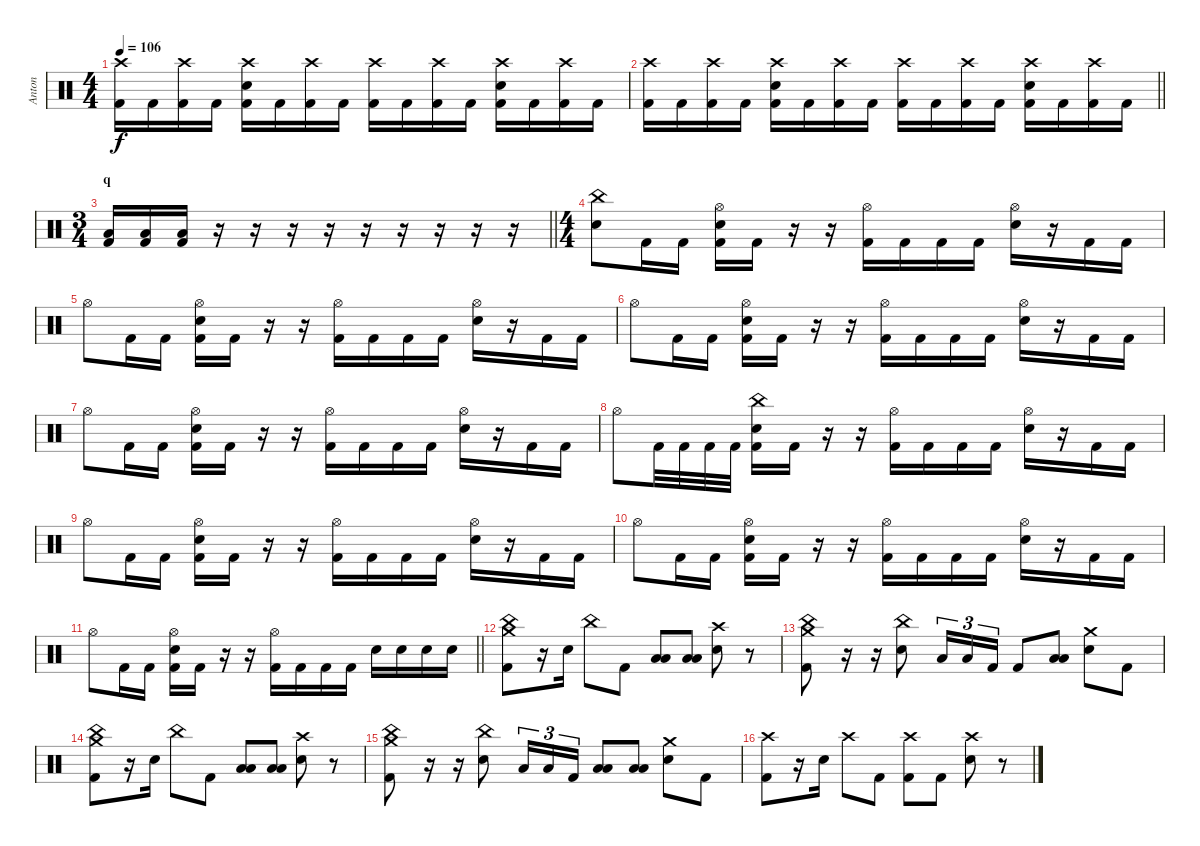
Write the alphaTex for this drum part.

\track ("Anton" "Anton") {instrument percussion}
\staff
\articulation defaults
\ts (4 4)
\tempo 106
\clef neutral
\ks c
("Crash high (hit)" "Kick (hit) 2").16{dy f} "Kick (hit) 2".16 ("Crash high (hit)" "Kick (hit) 2").16 "Kick (hit) 2".16 ("Crash high (hit)" "Electric Snare (hit)" "Kick (hit) 2").16 "Kick (hit) 2".16 ("Crash high (hit)" "Kick (hit) 2").16 "Kick (hit) 2".16 ("Crash high (hit)" "Kick (hit) 2").16 "Kick (hit) 2".16 ("Crash high (hit)" "Kick (hit) 2").16 "Kick (hit) 2".16 ("Crash high (hit)" "Electric Snare (hit)" "Kick (hit) 2").16 "Kick (hit) 2".16 ("Crash high (hit)" "Kick (hit) 2").16 "Kick (hit) 2".16 |
\barLineRight lightlight
("Crash high (hit)" "Kick (hit) 2").16 "Kick (hit) 2".16 ("Crash high (hit)" "Kick (hit) 2").16 "Kick (hit) 2".16 ("Crash high (hit)" "Electric Snare (hit)" "Kick (hit) 2").16 "Kick (hit) 2".16 ("Crash high (hit)" "Kick (hit) 2").16 "Kick (hit) 2".16 ("Crash high (hit)" "Kick (hit) 2").16 "Kick (hit) 2".16 ("Crash high (hit)" "Kick (hit) 2").16 "Kick (hit) 2".16 ("Crash high (hit)" "Electric Snare (hit)" "Kick (hit) 2").16 "Kick (hit) 2".16 ("Crash high (hit)" "Kick (hit) 2").16 "Kick (hit) 2".16 |
\ts (3 4)
\section ("" "q")
\barLineRight lightlight
("Low Floor Tom (hit)" "Kick (hit) 2").16 ("Low Floor Tom (hit)" "Kick (hit) 2").16 ("Low Floor Tom (hit)" "Kick (hit) 2").16 r.16 r.16 r.16 r.16 r.16 r.16 r.16 r.16 r.16 |
\ts (4 4)
("China (hit)" "Electric Snare (hit)").8 "Kick (hit) 2".16 "Kick (hit) 2".16 ("Hi-Hat (open)" "Electric Snare (hit)" "Kick (hit) 2").16 "Kick (hit) 2".16 r.16 r.16 ("Hi-Hat (open)" "Kick (hit) 2").16 "Kick (hit) 2".16 "Kick (hit) 2".16 "Kick (hit) 2".16 ("Hi-Hat (open)" "Electric Snare (hit)").16 r.16 "Kick (hit) 2".16 "Kick (hit) 2".16 |
"Hi-Hat (open)".8 "Kick (hit) 2".16 "Kick (hit) 2".16 ("Hi-Hat (open)" "Electric Snare (hit)" "Kick (hit) 2").16 "Kick (hit) 2".16 r.16 r.16 ("Hi-Hat (open)" "Kick (hit) 2").16 "Kick (hit) 2".16 "Kick (hit) 2".16 "Kick (hit) 2".16 ("Hi-Hat (open)" "Electric Snare (hit)").16 r.16 "Kick (hit) 2".16 "Kick (hit) 2".16 |
"Hi-Hat (open)".8 "Kick (hit) 2".16 "Kick (hit) 2".16 ("Hi-Hat (open)" "Electric Snare (hit)" "Kick (hit) 2").16 "Kick (hit) 2".16 r.16 r.16 ("Hi-Hat (open)" "Kick (hit) 2").16 "Kick (hit) 2".16 "Kick (hit) 2".16 "Kick (hit) 2".16 ("Hi-Hat (open)" "Electric Snare (hit)").16 r.16 "Kick (hit) 2".16 "Kick (hit) 2".16 |
"Hi-Hat (open)".8 "Kick (hit) 2".16 "Kick (hit) 2".16 ("Hi-Hat (open)" "Electric Snare (hit)" "Kick (hit) 2").16 "Kick (hit) 2".16 r.16 r.16 ("Hi-Hat (open)" "Kick (hit) 2").16 "Kick (hit) 2".16 "Kick (hit) 2".16 "Kick (hit) 2".16 ("Hi-Hat (open)" "Electric Snare (hit)").16 r.16 "Kick (hit) 2".16 "Kick (hit) 2".16 |
"Hi-Hat (open)".8 "Kick (hit) 2".32 "Kick (hit) 2".32 "Kick (hit) 2".32 "Kick (hit) 2".32 ("China (hit)" "Electric Snare (hit)" "Kick (hit) 2").16 "Kick (hit) 2".16 r.16 r.16 ("Hi-Hat (open)" "Kick (hit) 2").16 "Kick (hit) 2".16 "Kick (hit) 2".16 "Kick (hit) 2".16 ("Hi-Hat (open)" "Electric Snare (hit)").16 r.16 "Kick (hit) 2".16 "Kick (hit) 2".16 |
"Hi-Hat (open)".8 "Kick (hit) 2".16 "Kick (hit) 2".16 ("Hi-Hat (open)" "Electric Snare (hit)" "Kick (hit) 2").16 "Kick (hit) 2".16 r.16 r.16 ("Hi-Hat (open)" "Kick (hit) 2").16 "Kick (hit) 2".16 "Kick (hit) 2".16 "Kick (hit) 2".16 ("Hi-Hat (open)" "Electric Snare (hit)").16 r.16 "Kick (hit) 2".16 "Kick (hit) 2".16 |
"Hi-Hat (open)".8 "Kick (hit) 2".16 "Kick (hit) 2".16 ("Hi-Hat (open)" "Electric Snare (hit)" "Kick (hit) 2").16 "Kick (hit) 2".16 r.16 r.16 ("Hi-Hat (open)" "Kick (hit) 2").16 "Kick (hit) 2".16 "Kick (hit) 2".16 "Kick (hit) 2".16 ("Hi-Hat (open)" "Electric Snare (hit)").16 r.16 "Kick (hit) 2".16 "Kick (hit) 2".16 |
\barLineRight lightlight "Hi-Hat (open)".8 "Kick (hit) 2".16 "Kick (hit) 2".16
("Hi-Hat (open)" "Electric Snare (hit)" "Kick (hit) 2").16 "Kick (hit) 2".16 r.16 r.16 ("Hi-Hat (open)" "Kick (hit) 2").16 "Kick (hit) 2".16 "Kick (hit) 2".16 "Kick (hit) 2".16 "Electric Snare (hit)".16 "Electric Snare (hit)".16 "Electric Snare (hit)".16 "Electric Snare (hit)".16 |
("Crash medium (hit)" "China (hit)" "Kick (hit) 2").8 r.16 "Electric Snare (hit)".16 "China (hit)".8 "Kick (hit) 2".8 ("Low Tom (hit)" "Low Floor Tom (hit)").8 ("Low Tom (hit)" "Low Floor Tom (hit)").8 ("Crash high (hit)" "Electric Snare (hit)").8 r.8 |
("Crash medium (hit)" "China (hit)" "Kick (hit) 2").8 r.16 r.16 ("China (hit)" "Electric Snare (hit)").8 "Low Floor Tom (hit)".16{tu (3 2)} "Low Floor Tom (hit)".16{tu (3 2)} "Kick (hit) 2".16{tu (3 2)} "Kick (hit) 2".8 ("Low Tom (hit)" "Low Floor Tom (hit)").8 ("Crash medium (hit)" "Electric Snare (hit)").8 "Kick (hit) 2".8 |
("Crash medium (hit)" "China (hit)" "Kick (hit) 2").8 r.16 "Electric Snare (hit)".16 "China (hit)".8 "Kick (hit) 2".8 ("Low Tom (hit)" "Low Floor Tom (hit)").8 ("Low Tom (hit)" "Low Floor Tom (hit)").8 ("Crash high (hit)" "Electric Snare (hit)").8 r.8 |
("Crash medium (hit)" "China (hit)" "Kick (hit) 2").8 r.16 r.16 ("China (hit)" "Electric Snare (hit)").8 "Low Floor Tom (hit)".16{tu (3 2)} "Low Floor Tom (hit)".16{tu (3 2)} "Kick (hit) 2".16{tu (3 2)} ("Low Tom (hit)" "Low Floor Tom (hit)").8 ("Low Tom (hit)" "Low Floor Tom (hit)").8 ("Crash medium (hit)" "Electric Snare (hit)").8 "Kick (hit) 2".8 |
("Crash high (hit)" "Kick (hit) 2").8 r.16 "Electric Snare (hit)".16 "Crash high (hit)".8 "Kick (hit) 2".8 ("Crash high (hit)" "Kick (hit) 2").8 "Kick (hit) 2".8 ("Crash high (hit)" "Electric Snare (hit)").8 r.8
